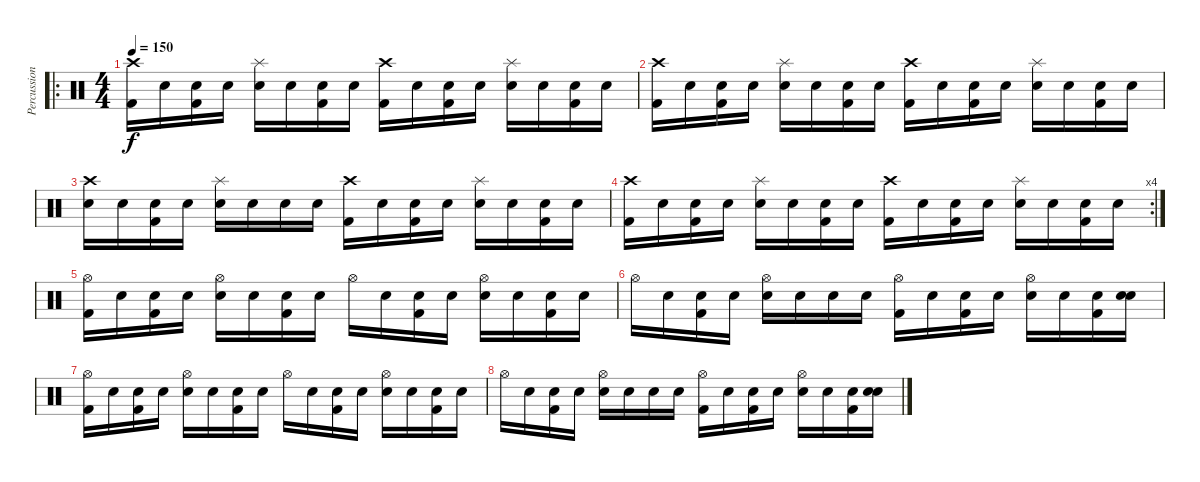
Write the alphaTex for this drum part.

\track ("Percussion" "Percussion") {instrument percussion}
\staff {score}
\articulation defaults
\ro
\ts (4 4)
\tempo 150
\clef neutral
\ks c
("Crash high (hit)" "Kick (hit) 2").16{dy f} "Snare (hit)".16 ("Snare (hit)" "Kick (hit) 2").16 "Snare (hit)".16 ("Splash (hit)" "Electric Snare (hit)").16 "Snare (hit)".16 ("Snare (hit)" "Kick (hit) 2").16 "Snare (hit)".16 ("Crash high (hit)" "Kick (hit) 2").16 "Snare (hit)".16 ("Snare (hit)" "Kick (hit) 2").16 "Snare (hit)".16 ("Splash (hit)" "Electric Snare (hit)").16 "Snare (hit)".16 ("Snare (hit)" "Kick (hit) 2").16 "Snare (hit)".16 |
("Crash high (hit)" "Kick (hit) 2").16 "Snare (hit)".16 ("Snare (hit)" "Kick (hit) 2").16 "Snare (hit)".16 ("Splash (hit)" "Electric Snare (hit)").16 "Snare (hit)".16 ("Snare (hit)" "Kick (hit) 2").16 "Snare (hit)".16 ("Crash high (hit)" "Kick (hit) 2").16 "Snare (hit)".16 ("Snare (hit)" "Kick (hit) 2").16 "Snare (hit)".16 ("Splash (hit)" "Electric Snare (hit)").16 "Snare (hit)".16 ("Snare (hit)" "Kick (hit) 2").16 "Snare (hit)".16 |
("Crash high (hit)" "Electric Snare (hit)").16 "Snare (hit)".16 ("Snare (hit)" "Kick (hit) 2").16 "Snare (hit)".16 ("Splash (hit)" "Electric Snare (hit)").16 "Snare (hit)".16 "Snare (hit)".16 "Snare (hit)".16 ("Crash high (hit)" "Kick (hit) 2").16 "Snare (hit)".16 ("Snare (hit)" "Kick (hit) 2").16 "Snare (hit)".16 ("Splash (hit)" "Electric Snare (hit)").16 "Snare (hit)".16 ("Snare (hit)" "Kick (hit) 2").16 "Snare (hit)".16 |
\rc 4
("Crash high (hit)" "Kick (hit) 2").16 "Snare (hit)".16 ("Snare (hit)" "Kick (hit) 2").16 "Snare (hit)".16 ("Splash (hit)" "Electric Snare (hit)").16 "Snare (hit)".16 ("Snare (hit)" "Kick (hit) 2").16 "Snare (hit)".16 ("Crash high (hit)" "Kick (hit) 2").16 "Snare (hit)".16 ("Snare (hit)" "Kick (hit) 2").16 "Snare (hit)".16 ("Splash (hit)" "Electric Snare (hit)").16 "Snare (hit)".16 ("Snare (hit)" "Kick (hit) 2").16 "Snare (hit)".16 |
("Hi-Hat (open)" "Kick (hit) 2").16 "Snare (hit)".16 ("Snare (hit)" "Kick (hit) 2").16 "Snare (hit)".16 ("Hi-Hat (open)" "Electric Snare (hit)").16 "Snare (hit)".16 ("Snare (hit)" "Kick (hit) 2").16 "Snare (hit)".16 "Hi-Hat (open)".16 "Snare (hit)".16 ("Snare (hit)" "Kick (hit) 2").16 "Snare (hit)".16 ("Hi-Hat (open)" "Electric Snare (hit)").16 "Snare (hit)".16 ("Snare (hit)" "Kick (hit) 2").16 "Snare (hit)".16 |
"Hi-Hat (open)".16 "Snare (hit)".16 ("Snare (hit)" "Kick (hit) 2").16 "Snare (hit)".16 ("Hi-Hat (open)" "Electric Snare (hit)").16 "Snare (hit)".16 "Snare (hit)".16 "Snare (hit)".16 ("Hi-Hat (open)" "Kick (hit) 2").16 "Snare (hit)".16 ("Snare (hit)" "Kick (hit) 2").16 "Snare (hit)".16 ("Hi-Hat (open)" "Electric Snare (hit)").16 "Snare (hit)".16 ("Snare (hit)" "Kick (hit) 2").16 ("Snare (hit)" "Electric Snare (hit)").16 |
("Hi-Hat (open)" "Kick (hit) 2").16 "Snare (hit)".16 ("Snare (hit)" "Kick (hit) 2").16 "Snare (hit)".16 ("Hi-Hat (open)" "Electric Snare (hit)").16 "Snare (hit)".16 ("Snare (hit)" "Kick (hit) 2").16 "Snare (hit)".16 "Hi-Hat (open)".16 "Snare (hit)".16 ("Snare (hit)" "Kick (hit) 2").16 "Snare (hit)".16 ("Hi-Hat (open)" "Electric Snare (hit)").16 "Snare (hit)".16 ("Snare (hit)" "Kick (hit) 2").16 "Snare (hit)".16 |
"Hi-Hat (open)".16 "Snare (hit)".16 ("Snare (hit)" "Kick (hit) 2").16 "Snare (hit)".16 ("Hi-Hat (open)" "Electric Snare (hit)").16 "Snare (hit)".16 "Snare (hit)".16 "Snare (hit)".16 ("Hi-Hat (open)" "Kick (hit) 2").16 "Snare (hit)".16 ("Snare (hit)" "Kick (hit) 2").16 "Snare (hit)".16 ("Hi-Hat (open)" "Electric Snare (hit)").16 "Snare (hit)".16 ("Snare (hit)" "Kick (hit) 2").16 ("Snare (hit)" "Electric Snare (hit)").16
